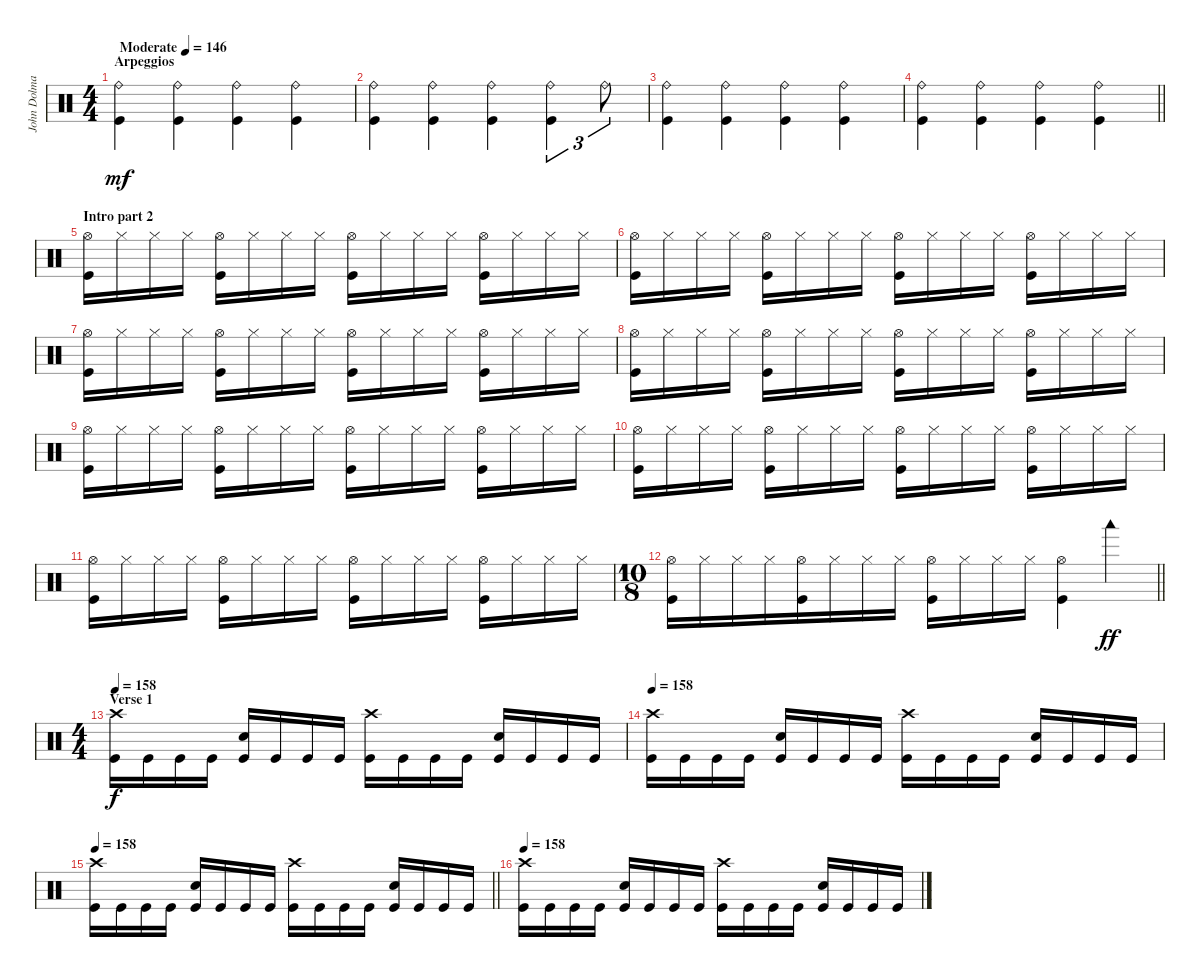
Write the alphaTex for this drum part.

\track ("John Dolmayan (drums)" "John Dolma") {instrument percussion}
\staff {score}
\articulation defaults
\ts (4 4)
\section ("" "Arpeggios")
\tempo (146 "Moderate")
\clef neutral
\ks c
("Ride (bell)" "Kick (hit)").4{dy mf} ("Ride (bell)" "Kick (hit)").4 ("Ride (bell)" "Kick (hit)").4 ("Ride (bell)" "Kick (hit)").4 |
("Ride (bell)" "Kick (hit)").4 ("Ride (bell)" "Kick (hit)").4 ("Ride (bell)" "Kick (hit)").4 ("Ride (bell)" "Kick (hit)").4{tu (3 2)} "Ride (bell)".8{tu (3 2)} |
("Ride (bell)" "Kick (hit)").4 ("Ride (bell)" "Kick (hit)").4 ("Ride (bell)" "Kick (hit)").4 ("Ride (bell)" "Kick (hit)").4 |
\barLineRight lightlight
("Ride (bell)" "Kick (hit)").4 ("Ride (bell)" "Kick (hit)").4 ("Ride (bell)" "Kick (hit)").4 ("Ride (bell)" "Kick (hit)").4 |
\section ("" "Intro part 2")
("Hi-Hat (open)" "Kick (hit)").16 "Hi-Hat (closed)".16 "Hi-Hat (closed)".16 "Hi-Hat (closed)".16 ("Hi-Hat (open)" "Kick (hit)").16 "Hi-Hat (closed)".16 "Hi-Hat (closed)".16 "Hi-Hat (closed)".16 ("Hi-Hat (open)" "Kick (hit)").16 "Hi-Hat (closed)".16 "Hi-Hat (closed)".16 "Hi-Hat (closed)".16 ("Hi-Hat (open)" "Kick (hit)").16 "Hi-Hat (closed)".16 "Hi-Hat (closed)".16 "Hi-Hat (closed)".16 |
("Hi-Hat (open)" "Kick (hit)").16 "Hi-Hat (closed)".16 "Hi-Hat (closed)".16 "Hi-Hat (closed)".16 ("Hi-Hat (open)" "Kick (hit)").16 "Hi-Hat (closed)".16 "Hi-Hat (closed)".16 "Hi-Hat (closed)".16 ("Hi-Hat (open)" "Kick (hit)").16 "Hi-Hat (closed)".16 "Hi-Hat (closed)".16 "Hi-Hat (closed)".16 ("Hi-Hat (open)" "Kick (hit)").16 "Hi-Hat (closed)".16 "Hi-Hat (closed)".16 "Hi-Hat (closed)".16 |
("Hi-Hat (open)" "Kick (hit)").16 "Hi-Hat (closed)".16 "Hi-Hat (closed)".16 "Hi-Hat (closed)".16 ("Hi-Hat (open)" "Kick (hit)").16 "Hi-Hat (closed)".16 "Hi-Hat (closed)".16 "Hi-Hat (closed)".16 ("Hi-Hat (open)" "Kick (hit)").16 "Hi-Hat (closed)".16 "Hi-Hat (closed)".16 "Hi-Hat (closed)".16 ("Hi-Hat (open)" "Kick (hit)").16 "Hi-Hat (closed)".16 "Hi-Hat (closed)".16 "Hi-Hat (closed)".16 |
("Hi-Hat (open)" "Kick (hit)").16 "Hi-Hat (closed)".16 "Hi-Hat (closed)".16 "Hi-Hat (closed)".16 ("Hi-Hat (open)" "Kick (hit)").16 "Hi-Hat (closed)".16 "Hi-Hat (closed)".16 "Hi-Hat (closed)".16 ("Hi-Hat (open)" "Kick (hit)").16 "Hi-Hat (closed)".16 "Hi-Hat (closed)".16 "Hi-Hat (closed)".16 ("Hi-Hat (open)" "Kick (hit)").16 "Hi-Hat (closed)".16 "Hi-Hat (closed)".16 "Hi-Hat (closed)".16 |
("Hi-Hat (open)" "Kick (hit)").16 "Hi-Hat (closed)".16 "Hi-Hat (closed)".16 "Hi-Hat (closed)".16 ("Hi-Hat (open)" "Kick (hit)").16 "Hi-Hat (closed)".16 "Hi-Hat (closed)".16 "Hi-Hat (closed)".16 ("Hi-Hat (open)" "Kick (hit)").16 "Hi-Hat (closed)".16 "Hi-Hat (closed)".16 "Hi-Hat (closed)".16 ("Hi-Hat (open)" "Kick (hit)").16 "Hi-Hat (closed)".16 "Hi-Hat (closed)".16 "Hi-Hat (closed)".16 |
("Hi-Hat (open)" "Kick (hit)").16 "Hi-Hat (closed)".16 "Hi-Hat (closed)".16 "Hi-Hat (closed)".16 ("Hi-Hat (open)" "Kick (hit)").16 "Hi-Hat (closed)".16 "Hi-Hat (closed)".16 "Hi-Hat (closed)".16 ("Hi-Hat (open)" "Kick (hit)").16 "Hi-Hat (closed)".16 "Hi-Hat (closed)".16 "Hi-Hat (closed)".16 ("Hi-Hat (open)" "Kick (hit)").16 "Hi-Hat (closed)".16 "Hi-Hat (closed)".16 "Hi-Hat (closed)".16 |
("Hi-Hat (open)" "Kick (hit)").16 "Hi-Hat (closed)".16 "Hi-Hat (closed)".16 "Hi-Hat (closed)".16 ("Hi-Hat (open)" "Kick (hit)").16 "Hi-Hat (closed)".16 "Hi-Hat (closed)".16 "Hi-Hat (closed)".16 ("Hi-Hat (open)" "Kick (hit)").16 "Hi-Hat (closed)".16 "Hi-Hat (closed)".16 "Hi-Hat (closed)".16 ("Hi-Hat (open)" "Kick (hit)").16 "Hi-Hat (closed)".16 "Hi-Hat (closed)".16 "Hi-Hat (closed)".16 |
\ts (10 8)
\barLineRight lightlight
("Hi-Hat (open)" "Kick (hit)").16 "Hi-Hat (closed)".16 "Hi-Hat (closed)".16 "Hi-Hat (closed)".16 ("Hi-Hat (open)" "Kick (hit)").16 "Hi-Hat (closed)".16 "Hi-Hat (closed)".16 "Hi-Hat (closed)".16 ("Hi-Hat (open)" "Kick (hit)").16 "Hi-Hat (closed)".16 "Hi-Hat (closed)".16 "Hi-Hat (closed)".16 ("Hi-Hat (open)" "Kick (hit)").4 "Woodblock low (hit)".4{dy ff} |
\ts (4 4)
\section ("" "Verse 1")
\tempo 158
("Crash high (hit)" "Kick (hit)").16{dy f} "Kick (hit)".16 "Kick (hit)".16 "Kick (hit)".16 ("Snare (hit) 2" "Kick (hit)").16 "Kick (hit)".16 "Kick (hit)".16 "Kick (hit)".16 ("Crash high (hit)" "Kick (hit)").16 "Kick (hit)".16 "Kick (hit)".16 "Kick (hit)".16 ("Snare (hit) 2" "Kick (hit)").16 "Kick (hit)".16 "Kick (hit)".16 "Kick (hit)".16 |
\tempo 158
("Crash high (hit)" "Kick (hit)").16 "Kick (hit)".16 "Kick (hit)".16 "Kick (hit)".16 ("Snare (hit) 2" "Kick (hit)").16 "Kick (hit)".16 "Kick (hit)".16 "Kick (hit)".16 ("Crash high (hit)" "Kick (hit)").16 "Kick (hit)".16 "Kick (hit)".16 "Kick (hit)".16 ("Snare (hit) 2" "Kick (hit)").16 "Kick (hit)".16 "Kick (hit)".16 "Kick (hit)".16 |
\tempo 158
\barLineRight lightlight
("Crash high (hit)" "Kick (hit)").16 "Kick (hit)".16 "Kick (hit)".16 "Kick (hit)".16 ("Snare (hit) 2" "Kick (hit)").16 "Kick (hit)".16 "Kick (hit)".16 "Kick (hit)".16 ("Crash high (hit)" "Kick (hit)").16 "Kick (hit)".16 "Kick (hit)".16 "Kick (hit)".16 ("Snare (hit) 2" "Kick (hit)").16 "Kick (hit)".16 "Kick (hit)".16 "Kick (hit)".16 |
\section ("" "")
\tempo 158
("Crash high (hit)" "Kick (hit)").16 "Kick (hit)".16 "Kick (hit)".16 "Kick (hit)".16 ("Snare (hit) 2" "Kick (hit)").16 "Kick (hit)".16 "Kick (hit)".16 "Kick (hit)".16 ("Crash high (hit)" "Kick (hit)").16 "Kick (hit)".16 "Kick (hit)".16 "Kick (hit)".16 ("Snare (hit) 2" "Kick (hit)").16 "Kick (hit)".16 "Kick (hit)".16 "Kick (hit)".16
